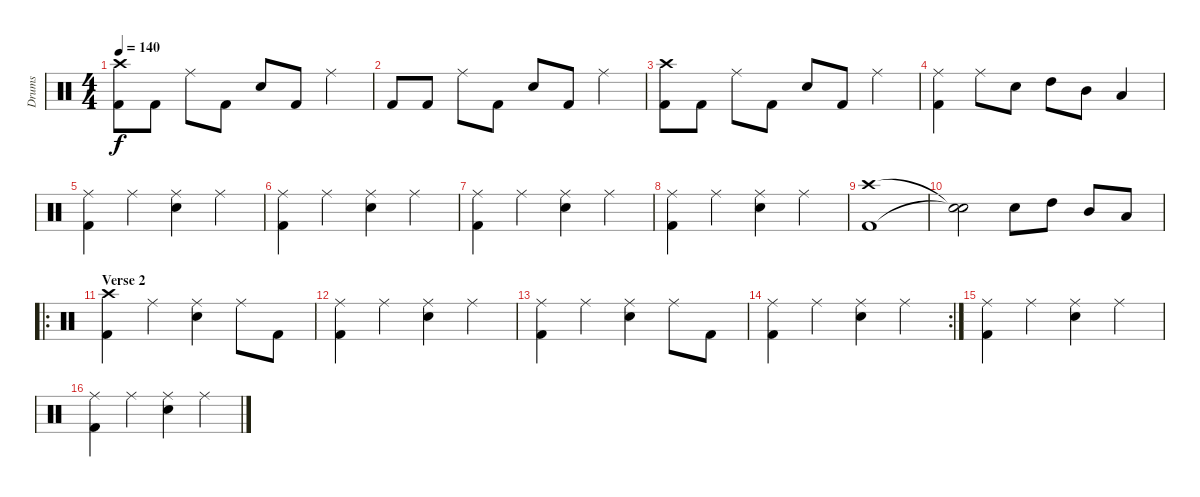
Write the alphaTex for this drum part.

\track ("Drums" "Drums") {instrument percussion}
\staff {score}
\articulation defaults
\ts (4 4)
\tempo 140
\clef neutral
\ks c
("Crash high (hit)" "Kick (hit) 2").8{dy f} "Kick (hit) 2".8 "Ride (middle)".8 "Kick (hit) 2".8 "Electric Snare (hit)".8 "Kick (hit) 2".8 "Ride (middle)".4 |
"Kick (hit) 2".8 "Kick (hit) 2".8 "Ride (middle)".8 "Kick (hit) 2".8 "Electric Snare (hit)".8 "Kick (hit) 2".8 "Ride (middle)".4 |
("Crash high (hit)" "Kick (hit) 2").8 "Kick (hit) 2".8 "Ride (middle)".8 "Kick (hit) 2".8 "Electric Snare (hit)".8 "Kick (hit) 2".8 "Ride (middle)".4 |
("Ride (middle)" "Kick (hit) 2").4 "Ride (middle)".8 "Electric Snare (hit)".8 "High Tom (hit)".8 "Mid Tom (hit)".8 "Low Tom (hit)".4 |
("Ride (middle)" "Kick (hit) 2").4 "Ride (middle)".4 ("Ride (middle)" "Electric Snare (hit)").4 "Ride (middle)".4 |
("Ride (middle)" "Kick (hit) 2").4 "Ride (middle)".4 ("Ride (middle)" "Electric Snare (hit)").4 "Ride (middle)".4 |
("Ride (middle)" "Kick (hit) 2").4 "Ride (middle)".4 ("Ride (middle)" "Electric Snare (hit)").4 "Ride (middle)".4 |
("Ride (middle)" "Kick (hit) 2").4 "Ride (middle)".4 ("Ride (middle)" "Electric Snare (hit)").4 "Ride (middle)".4 |
("Crash high (hit)" "Kick (hit) 2").1 |
("Snare (hit)"{t} "Snare (hit)"{t}).2 "Electric Snare (hit)".8 "High Tom (hit)".8 "Mid Tom (hit)".8 "Low Tom (hit)".8 |
\ro
\section ("" "Verse 2")
("Crash high (hit)" "Kick (hit) 2").4 "Ride (middle)".4 ("Ride (middle)" "Electric Snare (hit)").4 "Ride (middle)".8 "Kick (hit) 2".8 |
("Ride (middle)" "Kick (hit) 2").4 "Ride (middle)".4 ("Ride (middle)" "Electric Snare (hit)").4 "Ride (middle)".4 |
("Ride (middle)" "Kick (hit) 2").4 "Ride (middle)".4 ("Ride (middle)" "Electric Snare (hit)").4 "Ride (middle)".8 "Kick (hit) 2".8 |
\rc 2
("Ride (middle)" "Kick (hit) 2").4 "Ride (middle)".4 ("Ride (middle)" "Electric Snare (hit)").4 "Ride (middle)".4 |
("Ride (middle)" "Kick (hit) 2").4 "Ride (middle)".4 ("Ride (middle)" "Electric Snare (hit)").4 "Ride (middle)".4 |
("Ride (middle)" "Kick (hit) 2").4 "Ride (middle)".4 ("Ride (middle)" "Electric Snare (hit)").4 "Ride (middle)".4
